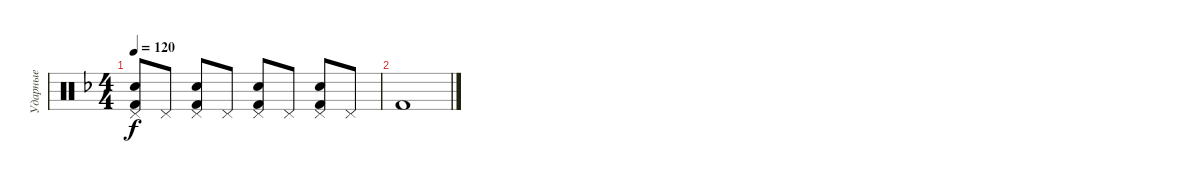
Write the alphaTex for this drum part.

\track ("Ударные" "Ударные") {instrument percussion}
\staff {score}
\articulation defaults
\ts (4 4)
\tempo 120
\clef neutral
\ks dminor
("Pedal Hi-Hat (hit)" "Snare (hit) 2" "Kick (hit) 2").8{dy f} "Pedal Hi-Hat (hit)".8 ("Pedal Hi-Hat (hit)" "Snare (hit) 2" "Kick (hit) 2").8 "Pedal Hi-Hat (hit)".8 ("Pedal Hi-Hat (hit)" "Snare (hit) 2" "Kick (hit) 2").8 "Pedal Hi-Hat (hit)".8 ("Pedal Hi-Hat (hit)" "Snare (hit) 2" "Kick (hit) 2").8 "Pedal Hi-Hat (hit)".8 |
"Kick (hit) 2".1
